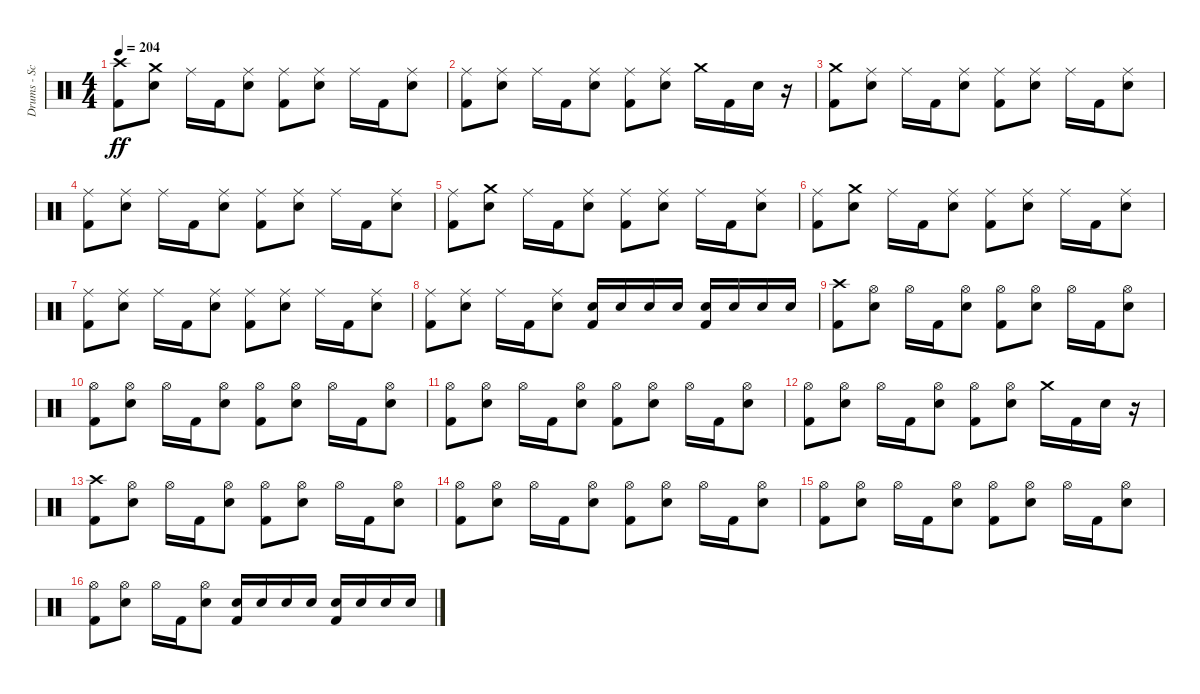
\track ("Drums - Scott" "Drums - Sc") {instrument percussion}
\staff {score}
\articulation defaults
\ts (4 4)
\tempo 204
\clef neutral
\ks c
("Kick (hit) 2" "Crash high (hit)").8{dy ff} ("Electric Snare (hit)" "Crash medium (hit)").8 "Ride (middle)".16 "Kick (hit) 2".16 ("Electric Snare (hit)" "Ride (middle)").8 ("Kick (hit) 2" "Ride (middle)").8 ("Electric Snare (hit)" "Ride (middle)").8 "Ride (middle)".16 "Kick (hit) 2".16 ("Electric Snare (hit)" "Ride (middle)").8 |
("Kick (hit) 2" "Ride (middle)").8 ("Electric Snare (hit)" "Ride (middle)").8 "Ride (middle)".16 "Kick (hit) 2".16 ("Electric Snare (hit)" "Ride (middle)").8 ("Kick (hit) 2" "Ride (middle)").8 ("Electric Snare (hit)" "Ride (middle)").8 "Crash medium (hit)".16 "Kick (hit) 2".16 "Electric Snare (hit)".16 r.16 |
("Kick (hit) 2" "Crash medium (hit)").8 ("Electric Snare (hit)" "Ride (middle)").8 "Ride (middle)".16 "Kick (hit) 2".16 ("Electric Snare (hit)" "Ride (middle)").8 ("Kick (hit) 2" "Ride (middle)").8 ("Electric Snare (hit)" "Ride (middle)").8 "Ride (middle)".16 "Kick (hit) 2".16 ("Electric Snare (hit)" "Ride (middle)").8 |
("Kick (hit) 2" "Ride (middle)").8 ("Electric Snare (hit)" "Ride (middle)").8 "Ride (middle)".16 "Kick (hit) 2".16 ("Electric Snare (hit)" "Ride (middle)").8 ("Kick (hit) 2" "Ride (middle)").8 ("Electric Snare (hit)" "Ride (middle)").8 "Ride (middle)".16 "Kick (hit) 2".16 ("Electric Snare (hit)" "Ride (middle)").8 |
("Kick (hit) 2" "Ride (middle)").8 ("Electric Snare (hit)" "Crash medium (hit)").8 "Ride (middle)".16 "Kick (hit) 2".16 ("Electric Snare (hit)" "Ride (middle)").8 ("Kick (hit) 2" "Ride (middle)").8 ("Electric Snare (hit)" "Ride (middle)").8 "Ride (middle)".16 "Kick (hit) 2".16 ("Electric Snare (hit)" "Ride (middle)").8 |
("Kick (hit) 2" "Ride (middle)").8 ("Electric Snare (hit)" "Crash medium (hit)").8 "Ride (middle)".16 "Kick (hit) 2".16 ("Electric Snare (hit)" "Ride (middle)").8 ("Kick (hit) 2" "Ride (middle)").8 ("Electric Snare (hit)" "Ride (middle)").8 "Ride (middle)".16 "Kick (hit) 2".16 ("Electric Snare (hit)" "Ride (middle)").8 |
("Kick (hit) 2" "Ride (middle)").8 ("Electric Snare (hit)" "Ride (middle)").8 "Ride (middle)".16 "Kick (hit) 2".16 ("Electric Snare (hit)" "Ride (middle)").8 ("Kick (hit) 2" "Ride (middle)").8 ("Electric Snare (hit)" "Ride (middle)").8 "Ride (middle)".16 "Kick (hit) 2".16 ("Electric Snare (hit)" "Ride (middle)").8 |
("Kick (hit) 2" "Ride (middle)").8 ("Electric Snare (hit)" "Ride (middle)").8 "Ride (middle)".16 "Kick (hit) 2".16 ("Electric Snare (hit)" "Ride (middle)").8 ("Kick (hit) 2" "Electric Snare (hit)").16 "Electric Snare (hit)".16 "Electric Snare (hit)".16 "Electric Snare (hit)".16 ("Kick (hit) 2" "Electric Snare (hit)").16 "Electric Snare (hit)".16 "Electric Snare (hit)".16 "Electric Snare (hit)".16 |
("Kick (hit) 2" "Crash high (hit)").8 ("Electric Snare (hit)" "Hi-Hat (open)").8 "Hi-Hat (open)".16 "Kick (hit) 2".16 ("Electric Snare (hit)" "Hi-Hat (open)").8 ("Hi-Hat (open)" "Kick (hit) 2").8 ("Electric Snare (hit)" "Hi-Hat (open)").8 "Hi-Hat (open)".16 "Kick (hit) 2".16 ("Electric Snare (hit)" "Hi-Hat (open)").8 |
("Hi-Hat (open)" "Kick (hit) 2").8 ("Electric Snare (hit)" "Hi-Hat (open)").8 "Hi-Hat (open)".16 "Kick (hit) 2".16 ("Electric Snare (hit)" "Hi-Hat (open)").8 ("Hi-Hat (open)" "Kick (hit) 2").8 ("Electric Snare (hit)" "Hi-Hat (open)").8 "Hi-Hat (open)".16 "Kick (hit) 2".16 ("Electric Snare (hit)" "Hi-Hat (open)").8 |
("Hi-Hat (open)" "Kick (hit) 2").8 ("Electric Snare (hit)" "Hi-Hat (open)").8 "Hi-Hat (open)".16 "Kick (hit) 2".16 ("Electric Snare (hit)" "Hi-Hat (open)").8 ("Hi-Hat (open)" "Kick (hit) 2").8 ("Electric Snare (hit)" "Hi-Hat (open)").8 "Hi-Hat (open)".16 "Kick (hit) 2".16 ("Electric Snare (hit)" "Hi-Hat (open)").8 |
("Hi-Hat (open)" "Kick (hit) 2").8 ("Electric Snare (hit)" "Hi-Hat (open)").8 "Hi-Hat (open)".16 "Kick (hit) 2".16 ("Electric Snare (hit)" "Hi-Hat (open)").8 ("Hi-Hat (open)" "Kick (hit) 2").8 ("Electric Snare (hit)" "Hi-Hat (open)").8 "Crash medium (hit)".16 "Kick (hit) 2".16 "Electric Snare (hit)".16 r.16 |
("Crash high (hit)" "Kick (hit) 2").8 ("Electric Snare (hit)" "Hi-Hat (open)").8 "Hi-Hat (open)".16 "Kick (hit) 2".16 ("Electric Snare (hit)" "Hi-Hat (open)").8 ("Hi-Hat (open)" "Kick (hit) 2").8 ("Electric Snare (hit)" "Hi-Hat (open)").8 "Hi-Hat (open)".16 "Kick (hit) 2".16 ("Electric Snare (hit)" "Hi-Hat (open)").8 |
("Hi-Hat (open)" "Kick (hit) 2").8 ("Electric Snare (hit)" "Hi-Hat (open)").8 "Hi-Hat (open)".16 "Kick (hit) 2".16 ("Electric Snare (hit)" "Hi-Hat (open)").8 ("Hi-Hat (open)" "Kick (hit) 2").8 ("Electric Snare (hit)" "Hi-Hat (open)").8 "Hi-Hat (open)".16 "Kick (hit) 2".16 ("Electric Snare (hit)" "Hi-Hat (open)").8 |
("Hi-Hat (open)" "Kick (hit) 2").8 ("Electric Snare (hit)" "Hi-Hat (open)").8 "Hi-Hat (open)".16 "Kick (hit) 2".16 ("Electric Snare (hit)" "Hi-Hat (open)").8 ("Hi-Hat (open)" "Kick (hit) 2").8 ("Electric Snare (hit)" "Hi-Hat (open)").8 "Hi-Hat (open)".16 "Kick (hit) 2".16 ("Electric Snare (hit)" "Hi-Hat (open)").8 |
("Hi-Hat (open)" "Kick (hit) 2").8 ("Electric Snare (hit)" "Hi-Hat (open)").8 "Hi-Hat (open)".16 "Kick (hit) 2".16 ("Electric Snare (hit)" "Hi-Hat (open)").8 ("Kick (hit) 2" "Electric Snare (hit)").16 "Electric Snare (hit)".16 "Electric Snare (hit)".16 "Electric Snare (hit)".16 ("Kick (hit) 2" "Electric Snare (hit)").16 "Electric Snare (hit)".16 "Electric Snare (hit)".16 "Electric Snare (hit)".16
